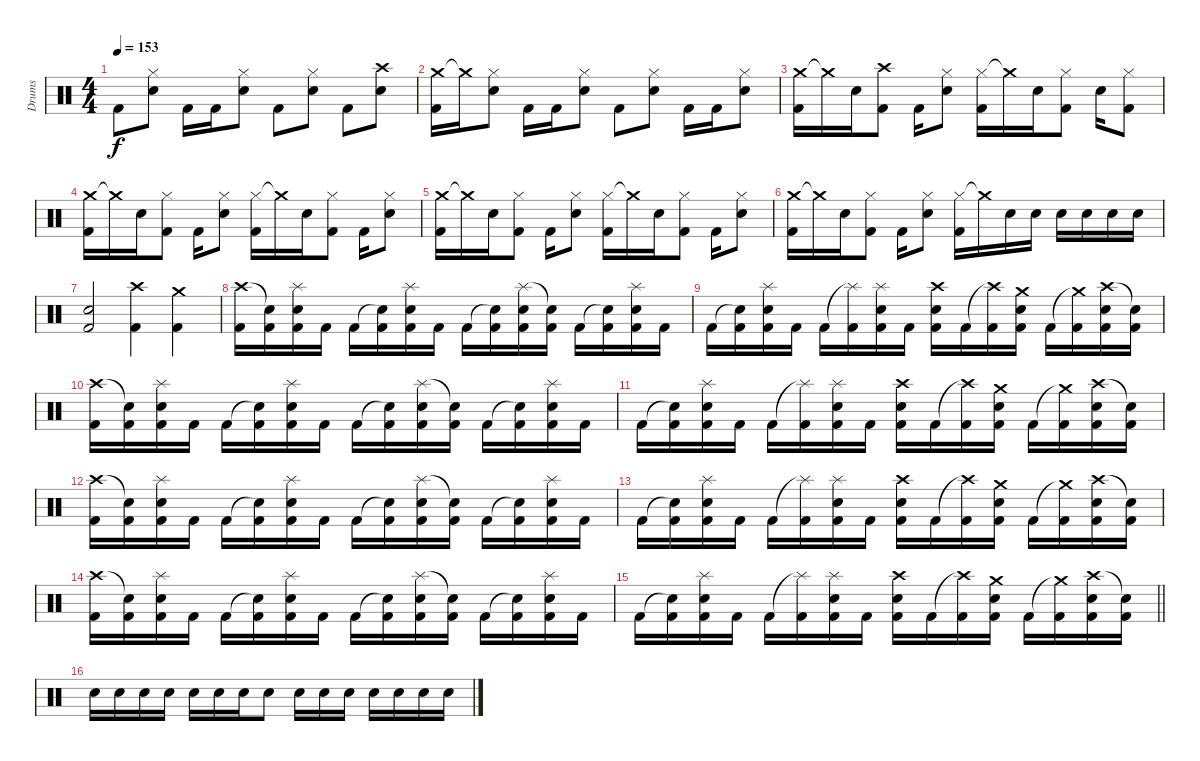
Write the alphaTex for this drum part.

\track ("Drums" "Drums") {instrument percussion}
\staff {score}
\articulation defaults
\ts (4 4)
\tempo 153
\clef neutral
\ks c "Kick (hit) 2".8{dy f}
("Hi-Hat (closed)" "Electric Snare (hit)").8 "Kick (hit) 2".16 "Kick (hit) 2".16 ("Hi-Hat (closed)" "Electric Snare (hit)").8 "Kick (hit) 2".8 ("Hi-Hat (closed)" "Electric Snare (hit)").8 "Kick (hit) 2".8 ("Crash high (hit)" "Electric Snare (hit)").8 |
("Crash medium (hit)" "Kick (hit) 2").16 "Crash medium (hit)"{t}.16 ("Hi-Hat (closed)" "Electric Snare (hit)").8 "Kick (hit) 2".16 "Kick (hit) 2".16 ("Hi-Hat (closed)" "Electric Snare (hit)").8 "Kick (hit) 2".8 ("Hi-Hat (closed)" "Electric Snare (hit)").8 "Kick (hit) 2".16 "Kick (hit) 2".16 ("Hi-Hat (closed)" "Electric Snare (hit)").8 |
("Crash medium (hit)" "Kick (hit) 2").16 "Crash medium (hit)"{t}.16 "Electric Snare (hit)".16 ("Crash high (hit)" "Kick (hit) 2").8 "Kick (hit) 2".16 ("Hi-Hat (closed)" "Electric Snare (hit)").8 ("Hi-Hat (closed)" "Kick (hit) 2").16 "Crash medium (hit)"{t}.16 "Electric Snare (hit)".16 ("Hi-Hat (closed)" "Kick (hit) 2").8 "Electric Snare (hit)".16 ("Hi-Hat (closed)" "Kick (hit) 2").8 |
("Crash medium (hit)" "Kick (hit) 2").16 "Crash medium (hit)"{t}.16 "Electric Snare (hit)".16 ("Hi-Hat (closed)" "Kick (hit) 2").8 "Kick (hit) 2".16 ("Hi-Hat (closed)" "Electric Snare (hit)").8 ("Hi-Hat (closed)" "Kick (hit) 2").16 "Crash medium (hit)"{t}.16 "Electric Snare (hit)".16 ("Hi-Hat (closed)" "Kick (hit) 2").8 "Kick (hit) 2".16 ("Hi-Hat (closed)" "Electric Snare (hit)").8 |
("Crash medium (hit)" "Kick (hit) 2").16 "Crash medium (hit)"{t}.16 "Electric Snare (hit)".16 ("Hi-Hat (closed)" "Kick (hit) 2").8 "Kick (hit) 2".16 ("Hi-Hat (closed)" "Electric Snare (hit)").8 ("Hi-Hat (closed)" "Kick (hit) 2").16 "Crash medium (hit)"{t}.16 "Electric Snare (hit)".16 ("Hi-Hat (closed)" "Kick (hit) 2").8 "Kick (hit) 2".16 ("Hi-Hat (closed)" "Electric Snare (hit)").8 |
("Crash medium (hit)" "Kick (hit) 2").16 "Crash medium (hit)"{t}.16 "Electric Snare (hit)".16 ("Hi-Hat (closed)" "Kick (hit) 2").8 "Kick (hit) 2".16 ("Hi-Hat (closed)" "Electric Snare (hit)").8 ("Hi-Hat (closed)" "Kick (hit) 2").16 "Crash medium (hit)"{t}.16 "Electric Snare (hit)".16 "Electric Snare (hit)".16 "Electric Snare (hit)".16 "Electric Snare (hit)".16 "Electric Snare (hit)".16 "Electric Snare (hit)".16 |
("Electric Snare (hit)" "Kick (hit) 2").2 ("Crash high (hit)" "Kick (hit) 2").4 ("Crash medium (hit)" "Kick (hit) 2").4 |
("Crash high (hit)" "Kick (hit) 2").16 ("Snare (hit)"{t} "Kick (hit) 2").16 ("Splash (hit)" "Electric Snare (hit)" "Kick (hit) 2").16 "Kick (hit) 2".16 "Kick (hit) 2".16 ("Snare (hit)"{t} "Kick (hit) 2").16 ("Splash (hit)" "Electric Snare (hit)" "Kick (hit) 2").16 "Kick (hit) 2".16 "Kick (hit) 2".16 ("Snare (hit)"{t} "Kick (hit) 2").16 ("Splash (hit)" "Electric Snare (hit)" "Kick (hit) 2").16 ("Snare (hit)"{t} "Kick (hit) 2").16 "Kick (hit) 2".16 ("Snare (hit)"{t} "Kick (hit) 2").16 ("Splash (hit)" "Electric Snare (hit)" "Kick (hit) 2").16 "Kick (hit) 2".16 |
"Kick (hit) 2".16 ("Snare (hit)"{t} "Kick (hit) 2").16 ("Splash (hit)" "Electric Snare (hit)" "Kick (hit) 2").16 "Kick (hit) 2".16 "Kick (hit) 2".16 ("Splash (hit)"{t} "Kick (hit) 2").16 ("Splash (hit)" "Electric Snare (hit)" "Kick (hit) 2").16 "Kick (hit) 2".16 ("Crash high (hit)" "Electric Snare (hit)" "Kick (hit) 2").16 "Kick (hit) 2".16 ("Crash high (hit)"{t} "Kick (hit) 2").16 ("Crash medium (hit)" "Electric Snare (hit)" "Kick (hit) 2").16 "Kick (hit) 2".16 ("Crash medium (hit)"{t} "Kick (hit) 2").16 ("Crash high (hit)" "Electric Snare (hit)" "Kick (hit) 2").16 ("Snare (hit)"{t} "Kick (hit) 2").16 |
("Crash high (hit)" "Kick (hit) 2").16 ("Snare (hit)"{t} "Kick (hit) 2").16 ("Splash (hit)" "Electric Snare (hit)" "Kick (hit) 2").16 "Kick (hit) 2".16 "Kick (hit) 2".16 ("Snare (hit)"{t} "Kick (hit) 2").16 ("Splash (hit)" "Electric Snare (hit)" "Kick (hit) 2").16 "Kick (hit) 2".16 "Kick (hit) 2".16 ("Snare (hit)"{t} "Kick (hit) 2").16 ("Splash (hit)" "Electric Snare (hit)" "Kick (hit) 2").16 ("Snare (hit)"{t} "Kick (hit) 2").16 "Kick (hit) 2".16 ("Snare (hit)"{t} "Kick (hit) 2").16 ("Splash (hit)" "Electric Snare (hit)" "Kick (hit) 2").16 "Kick (hit) 2".16 |
"Kick (hit) 2".16 ("Snare (hit)"{t} "Kick (hit) 2").16 ("Splash (hit)" "Electric Snare (hit)" "Kick (hit) 2").16 "Kick (hit) 2".16 "Kick (hit) 2".16 ("Splash (hit)"{t} "Kick (hit) 2").16 ("Splash (hit)" "Electric Snare (hit)" "Kick (hit) 2").16 "Kick (hit) 2".16 ("Crash high (hit)" "Electric Snare (hit)" "Kick (hit) 2").16 "Kick (hit) 2".16 ("Crash high (hit)"{t} "Kick (hit) 2").16 ("Crash medium (hit)" "Electric Snare (hit)" "Kick (hit) 2").16 "Kick (hit) 2".16 ("Crash medium (hit)"{t} "Kick (hit) 2").16 ("Crash high (hit)" "Electric Snare (hit)" "Kick (hit) 2").16 ("Snare (hit)"{t} "Kick (hit) 2").16 |
("Crash high (hit)" "Kick (hit) 2").16 ("Snare (hit)"{t} "Kick (hit) 2").16 ("Splash (hit)" "Electric Snare (hit)" "Kick (hit) 2").16 "Kick (hit) 2".16 "Kick (hit) 2".16 ("Snare (hit)"{t} "Kick (hit) 2").16 ("Splash (hit)" "Electric Snare (hit)" "Kick (hit) 2").16 "Kick (hit) 2".16 "Kick (hit) 2".16 ("Snare (hit)"{t} "Kick (hit) 2").16 ("Splash (hit)" "Electric Snare (hit)" "Kick (hit) 2").16 ("Snare (hit)"{t} "Kick (hit) 2").16 "Kick (hit) 2".16 ("Snare (hit)"{t} "Kick (hit) 2").16 ("Splash (hit)" "Electric Snare (hit)" "Kick (hit) 2").16 "Kick (hit) 2".16 |
"Kick (hit) 2".16 ("Snare (hit)"{t} "Kick (hit) 2").16 ("Splash (hit)" "Electric Snare (hit)" "Kick (hit) 2").16 "Kick (hit) 2".16 "Kick (hit) 2".16 ("Splash (hit)"{t} "Kick (hit) 2").16 ("Splash (hit)" "Electric Snare (hit)" "Kick (hit) 2").16 "Kick (hit) 2".16 ("Crash high (hit)" "Electric Snare (hit)" "Kick (hit) 2").16 "Kick (hit) 2".16 ("Crash high (hit)"{t} "Kick (hit) 2").16 ("Crash medium (hit)" "Electric Snare (hit)" "Kick (hit) 2").16 "Kick (hit) 2".16 ("Crash medium (hit)"{t} "Kick (hit) 2").16 ("Crash high (hit)" "Electric Snare (hit)" "Kick (hit) 2").16 ("Snare (hit)"{t} "Kick (hit) 2").16 |
("Crash high (hit)" "Kick (hit) 2").16 ("Snare (hit)"{t} "Kick (hit) 2").16 ("Splash (hit)" "Electric Snare (hit)" "Kick (hit) 2").16 "Kick (hit) 2".16 "Kick (hit) 2".16 ("Snare (hit)"{t} "Kick (hit) 2").16 ("Splash (hit)" "Electric Snare (hit)" "Kick (hit) 2").16 "Kick (hit) 2".16 "Kick (hit) 2".16 ("Snare (hit)"{t} "Kick (hit) 2").16 ("Splash (hit)" "Electric Snare (hit)" "Kick (hit) 2").16 ("Snare (hit)"{t} "Kick (hit) 2").16 "Kick (hit) 2".16 ("Snare (hit)"{t} "Kick (hit) 2").16 ("Splash (hit)" "Electric Snare (hit)" "Kick (hit) 2").16 "Kick (hit) 2".16 |
\barLineRight lightlight "Kick (hit) 2".16
("Snare (hit)"{t} "Kick (hit) 2").16 ("Splash (hit)" "Electric Snare (hit)" "Kick (hit) 2").16 "Kick (hit) 2".16 "Kick (hit) 2".16 ("Splash (hit)"{t} "Kick (hit) 2").16 ("Splash (hit)" "Electric Snare (hit)" "Kick (hit) 2").16 "Kick (hit) 2".16 ("Crash high (hit)" "Electric Snare (hit)" "Kick (hit) 2").16 "Kick (hit) 2".16 ("Crash high (hit)"{t} "Kick (hit) 2").16 ("Crash medium (hit)" "Electric Snare (hit)" "Kick (hit) 2").16 "Kick (hit) 2".16 ("Crash medium (hit)"{t} "Kick (hit) 2").16 ("Crash high (hit)" "Electric Snare (hit)" "Kick (hit) 2").16 ("Snare (hit)"{t} "Kick (hit) 2").16 |
\section ("" "")
"Electric Snare (hit)".16 "Electric Snare (hit)".16 "Electric Snare (hit)".16 "Electric Snare (hit)".16 "Electric Snare (hit)".16 "Electric Snare (hit)".16 "Electric Snare (hit)".16 "Electric Snare (hit)".8 "Electric Snare (hit)".16 "Electric Snare (hit)".16 "Electric Snare (hit)".16 "Electric Snare (hit)".16 "Electric Snare (hit)".16 "Electric Snare (hit)".16 "Electric Snare (hit)".16
